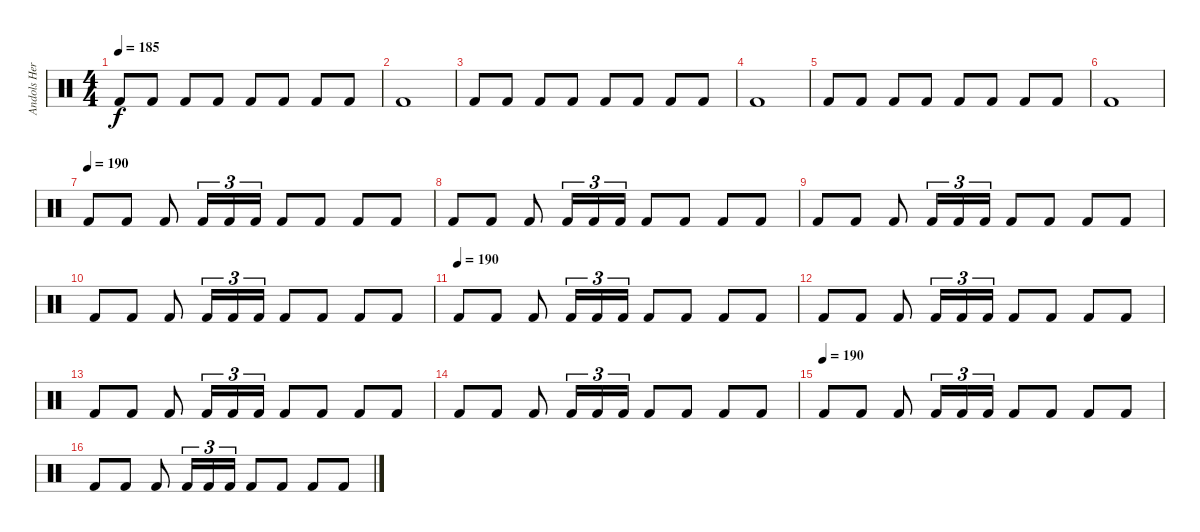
\track ("Andols Herrick [KICK]" "Andols Her") {instrument percussion}
\staff {score}
\articulation defaults
\ts (4 4)
\tempo 185
\clef neutral
\ks c "Kick (hit) 2".8{dy f} "Kick (hit) 2".8 "Kick (hit) 2".8 "Kick (hit) 2".8 "Kick (hit) 2".8 "Kick (hit) 2".8 "Kick (hit) 2".8 "Kick (hit) 2".8
|
"Kick (hit) 2".1 |
"Kick (hit) 2".8 "Kick (hit) 2".8 "Kick (hit) 2".8 "Kick (hit) 2".8 "Kick (hit) 2".8 "Kick (hit) 2".8 "Kick (hit) 2".8 "Kick (hit) 2".8 |
"Kick (hit) 2".1 |
"Kick (hit) 2".8 "Kick (hit) 2".8 "Kick (hit) 2".8 "Kick (hit) 2".8 "Kick (hit) 2".8 "Kick (hit) 2".8 "Kick (hit) 2".8 "Kick (hit) 2".8 |
"Kick (hit) 2".1 |
\tempo (190)
"Kick (hit) 2".8 "Kick (hit) 2".8 "Kick (hit) 2".8 "Kick (hit) 2".16{tu (3 2)} "Kick (hit) 2".16{tu (3 2)} "Kick (hit) 2".16{tu (3 2)} "Kick (hit) 2".8 "Kick (hit) 2".8 "Kick (hit) 2".8 "Kick (hit) 2".8 |
"Kick (hit) 2".8 "Kick (hit) 2".8 "Kick (hit) 2".8 "Kick (hit) 2".16{tu (3 2)} "Kick (hit) 2".16{tu (3 2)} "Kick (hit) 2".16{tu (3 2)} "Kick (hit) 2".8 "Kick (hit) 2".8 "Kick (hit) 2".8 "Kick (hit) 2".8 |
"Kick (hit) 2".8 "Kick (hit) 2".8 "Kick (hit) 2".8 "Kick (hit) 2".16{tu (3 2)} "Kick (hit) 2".16{tu (3 2)} "Kick (hit) 2".16{tu (3 2)} "Kick (hit) 2".8 "Kick (hit) 2".8 "Kick (hit) 2".8 "Kick (hit) 2".8 |
"Kick (hit) 2".8 "Kick (hit) 2".8 "Kick (hit) 2".8 "Kick (hit) 2".16{tu (3 2)} "Kick (hit) 2".16{tu (3 2)} "Kick (hit) 2".16{tu (3 2)} "Kick (hit) 2".8 "Kick (hit) 2".8 "Kick (hit) 2".8 "Kick (hit) 2".8 |
\tempo (190)
"Kick (hit) 2".8 "Kick (hit) 2".8 "Kick (hit) 2".8 "Kick (hit) 2".16{tu (3 2)} "Kick (hit) 2".16{tu (3 2)} "Kick (hit) 2".16{tu (3 2)} "Kick (hit) 2".8 "Kick (hit) 2".8 "Kick (hit) 2".8 "Kick (hit) 2".8 |
"Kick (hit) 2".8 "Kick (hit) 2".8 "Kick (hit) 2".8 "Kick (hit) 2".16{tu (3 2)} "Kick (hit) 2".16{tu (3 2)} "Kick (hit) 2".16{tu (3 2)} "Kick (hit) 2".8 "Kick (hit) 2".8 "Kick (hit) 2".8 "Kick (hit) 2".8 |
"Kick (hit) 2".8 "Kick (hit) 2".8 "Kick (hit) 2".8 "Kick (hit) 2".16{tu (3 2)} "Kick (hit) 2".16{tu (3 2)} "Kick (hit) 2".16{tu (3 2)} "Kick (hit) 2".8 "Kick (hit) 2".8 "Kick (hit) 2".8 "Kick (hit) 2".8 |
"Kick (hit) 2".8 "Kick (hit) 2".8 "Kick (hit) 2".8 "Kick (hit) 2".16{tu (3 2)} "Kick (hit) 2".16{tu (3 2)} "Kick (hit) 2".16{tu (3 2)} "Kick (hit) 2".8 "Kick (hit) 2".8 "Kick (hit) 2".8 "Kick (hit) 2".8 |
\tempo (190)
"Kick (hit) 2".8 "Kick (hit) 2".8 "Kick (hit) 2".8 "Kick (hit) 2".16{tu (3 2)} "Kick (hit) 2".16{tu (3 2)} "Kick (hit) 2".16{tu (3 2)} "Kick (hit) 2".8 "Kick (hit) 2".8 "Kick (hit) 2".8 "Kick (hit) 2".8 |
"Kick (hit) 2".8 "Kick (hit) 2".8 "Kick (hit) 2".8 "Kick (hit) 2".16{tu (3 2)} "Kick (hit) 2".16{tu (3 2)} "Kick (hit) 2".16{tu (3 2)} "Kick (hit) 2".8 "Kick (hit) 2".8 "Kick (hit) 2".8 "Kick (hit) 2".8
